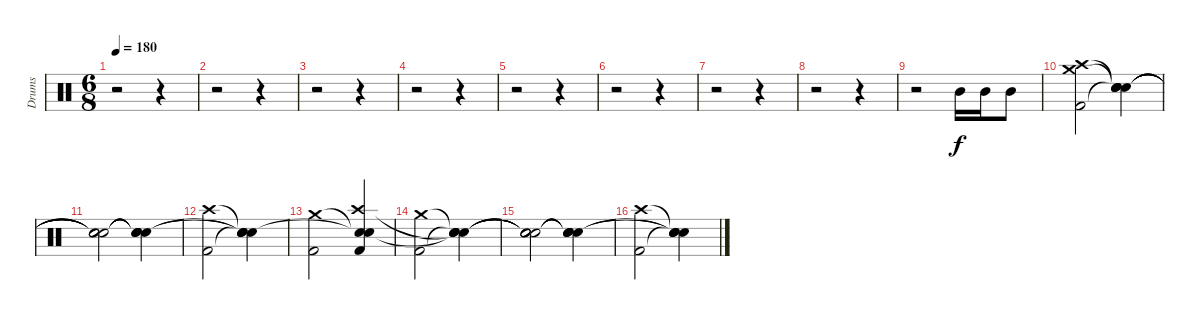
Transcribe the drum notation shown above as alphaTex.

\track ("Drums" "Drums") {instrument percussion}
\staff {score}
\articulation defaults
\ts (6 8)
\tempo 180
\clef neutral
\ks c
r.2{dy f} r.4 |
r.2 r.4 |
r.2 r.4 |
r.2 r.4 |
r.2 r.4 |
r.2 r.4 |
r.2 r.4 |
r.2 r.4 |
r.2 "Mid Tom (hit)".16 "Mid Tom (hit)".16 "Mid Tom (hit)".8 |
("Kick (hit) 2" "Crash high (hit)" "Crash medium (hit)").2 ("Snare (hit)"{t} "Snare (hit)"{t} "Snare (hit)"{t} "Snare (hit)").4 |
("Snare (hit)"{t} "Snare (hit)"{t} "Snare (hit)"{t} "Snare (hit)"{t}).2 ("Snare (hit)"{t} "Snare (hit)"{t} "Snare (hit)"{t} "Snare (hit)"{t}).4 |
("Kick (hit) 2" "Crash high (hit)").2 ("Snare (hit)"{t} "Snare (hit)"{t} "Snare (hit)"{t} "Snare (hit)"{t}).4 |
("Kick (hit) 2" "Crash medium (hit)").2 ("Kick (hit) 2" "Snare (hit)"{t} "Crash high (hit)" "Snare (hit)"{t}).4 |
("Kick (hit) 2" "Crash medium (hit)").2 ("Snare (hit)"{t} "Snare (hit)"{t} "Snare (hit)"{t} "Snare (hit)"{t}).4 |
("Snare (hit)"{t} "Snare (hit)"{t} "Snare (hit)"{t} "Snare (hit)"{t}).2 ("Snare (hit)"{t} "Snare (hit)"{t} "Snare (hit)"{t} "Snare (hit)"{t}).4 |
("Kick (hit) 2" "Crash high (hit)").2 ("Snare (hit)"{t} "Snare (hit)"{t} "Snare (hit)"{t} "Snare (hit)"{t}).4
